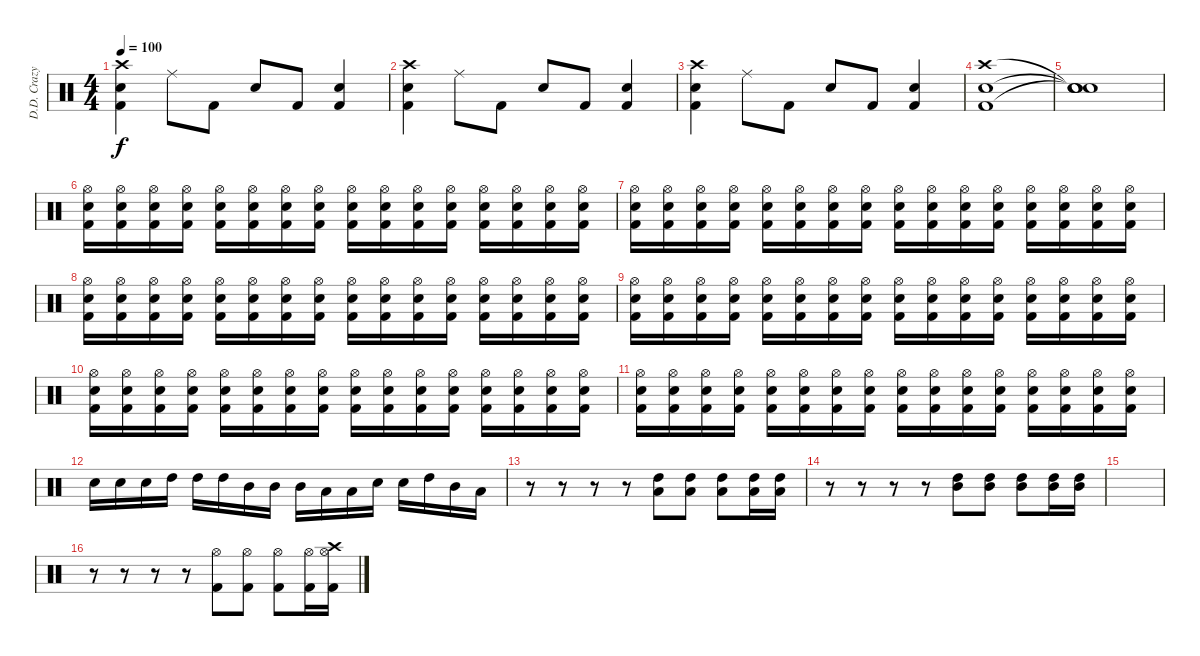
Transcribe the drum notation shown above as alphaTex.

\track ("D.D. Crazy " "D.D. Crazy") {instrument percussion}
\staff {score}
\articulation defaults
\ts (4 4)
\tempo 100
\clef neutral
\ks c
("Crash high (hit)" "Snare (hit) 2" "Kick (hit) 2").4{dy f} "Ride (middle)".8 "Kick (hit) 2".8 "Snare (hit) 2".8 "Kick (hit) 2".8 ("Snare (hit) 2" "Kick (hit) 2").4 |
("Crash high (hit)" "Snare (hit) 2" "Kick (hit) 2").4 "Ride (middle)".8 "Kick (hit) 2".8 "Snare (hit) 2".8 "Kick (hit) 2".8 ("Snare (hit) 2" "Kick (hit) 2").4 |
("Crash high (hit)" "Snare (hit) 2" "Kick (hit) 2").4 "Ride (middle)".8 "Kick (hit) 2".8 "Snare (hit) 2".8 "Kick (hit) 2".8 ("Snare (hit) 2" "Kick (hit) 2").4 |
("Crash high (hit)" "Snare (hit) 2" "Kick (hit) 2").1 |
("Snare (hit)"{t} "Snare (hit)"{t} "Snare (hit)"{t} "Snare (hit)").1 |
("Hi-Hat (open)" "Snare (hit) 2" "Kick (hit) 2").16 ("Hi-Hat (open)" "Snare (hit) 2" "Kick (hit) 2").16 ("Hi-Hat (open)" "Snare (hit) 2" "Kick (hit) 2").16 ("Hi-Hat (open)" "Snare (hit) 2" "Kick (hit) 2").16 ("Hi-Hat (open)" "Snare (hit) 2" "Kick (hit) 2").16 ("Hi-Hat (open)" "Snare (hit) 2" "Kick (hit) 2").16 ("Hi-Hat (open)" "Snare (hit) 2" "Kick (hit) 2").16 ("Hi-Hat (open)" "Snare (hit) 2" "Kick (hit) 2").16 ("Hi-Hat (open)" "Snare (hit) 2" "Kick (hit) 2").16 ("Hi-Hat (open)" "Snare (hit) 2" "Kick (hit) 2").16 ("Hi-Hat (open)" "Snare (hit) 2" "Kick (hit) 2").16 ("Hi-Hat (open)" "Snare (hit) 2" "Kick (hit) 2").16 ("Hi-Hat (open)" "Snare (hit) 2" "Kick (hit) 2").16 ("Hi-Hat (open)" "Snare (hit) 2" "Kick (hit) 2").16 ("Hi-Hat (open)" "Snare (hit) 2" "Kick (hit) 2").16 ("Hi-Hat (open)" "Snare (hit) 2" "Kick (hit) 2").16 |
("Hi-Hat (open)" "Snare (hit) 2" "Kick (hit) 2").16 ("Hi-Hat (open)" "Snare (hit) 2" "Kick (hit) 2").16 ("Hi-Hat (open)" "Snare (hit) 2" "Kick (hit) 2").16 ("Hi-Hat (open)" "Snare (hit) 2" "Kick (hit) 2").16 ("Hi-Hat (open)" "Snare (hit) 2" "Kick (hit) 2").16 ("Hi-Hat (open)" "Snare (hit) 2" "Kick (hit) 2").16 ("Hi-Hat (open)" "Snare (hit) 2" "Kick (hit) 2").16 ("Hi-Hat (open)" "Snare (hit) 2" "Kick (hit) 2").16 ("Hi-Hat (open)" "Snare (hit) 2" "Kick (hit) 2").16 ("Hi-Hat (open)" "Snare (hit) 2" "Kick (hit) 2").16 ("Hi-Hat (open)" "Snare (hit) 2" "Kick (hit) 2").16 ("Hi-Hat (open)" "Snare (hit) 2" "Kick (hit) 2").16 ("Hi-Hat (open)" "Snare (hit) 2" "Kick (hit) 2").16 ("Hi-Hat (open)" "Snare (hit) 2" "Kick (hit) 2").16 ("Hi-Hat (open)" "Snare (hit) 2" "Kick (hit) 2").16 ("Hi-Hat (open)" "Snare (hit) 2" "Kick (hit) 2").16 |
("Hi-Hat (open)" "Snare (hit) 2" "Kick (hit) 2").16 ("Hi-Hat (open)" "Snare (hit) 2" "Kick (hit) 2").16 ("Hi-Hat (open)" "Snare (hit) 2" "Kick (hit) 2").16 ("Hi-Hat (open)" "Snare (hit) 2" "Kick (hit) 2").16 ("Hi-Hat (open)" "Snare (hit) 2" "Kick (hit) 2").16 ("Hi-Hat (open)" "Snare (hit) 2" "Kick (hit) 2").16 ("Hi-Hat (open)" "Snare (hit) 2" "Kick (hit) 2").16 ("Hi-Hat (open)" "Snare (hit) 2" "Kick (hit) 2").16 ("Hi-Hat (open)" "Snare (hit) 2" "Kick (hit) 2").16 ("Hi-Hat (open)" "Snare (hit) 2" "Kick (hit) 2").16 ("Hi-Hat (open)" "Snare (hit) 2" "Kick (hit) 2").16 ("Hi-Hat (open)" "Snare (hit) 2" "Kick (hit) 2").16 ("Hi-Hat (open)" "Snare (hit) 2" "Kick (hit) 2").16 ("Hi-Hat (open)" "Snare (hit) 2" "Kick (hit) 2").16 ("Hi-Hat (open)" "Snare (hit) 2" "Kick (hit) 2").16 ("Hi-Hat (open)" "Snare (hit) 2" "Kick (hit) 2").16 |
("Hi-Hat (open)" "Snare (hit) 2" "Kick (hit) 2").16 ("Hi-Hat (open)" "Snare (hit) 2" "Kick (hit) 2").16 ("Hi-Hat (open)" "Snare (hit) 2" "Kick (hit) 2").16 ("Hi-Hat (open)" "Snare (hit) 2" "Kick (hit) 2").16 ("Hi-Hat (open)" "Snare (hit) 2" "Kick (hit) 2").16 ("Hi-Hat (open)" "Snare (hit) 2" "Kick (hit) 2").16 ("Hi-Hat (open)" "Snare (hit) 2" "Kick (hit) 2").16 ("Hi-Hat (open)" "Snare (hit) 2" "Kick (hit) 2").16 ("Hi-Hat (open)" "Snare (hit) 2" "Kick (hit) 2").16 ("Hi-Hat (open)" "Snare (hit) 2" "Kick (hit) 2").16 ("Hi-Hat (open)" "Snare (hit) 2" "Kick (hit) 2").16 ("Hi-Hat (open)" "Snare (hit) 2" "Kick (hit) 2").16 ("Hi-Hat (open)" "Snare (hit) 2" "Kick (hit) 2").16 ("Hi-Hat (open)" "Snare (hit) 2" "Kick (hit) 2").16 ("Hi-Hat (open)" "Snare (hit) 2" "Kick (hit) 2").16 ("Hi-Hat (open)" "Snare (hit) 2" "Kick (hit) 2").16 |
("Hi-Hat (open)" "Snare (hit) 2" "Kick (hit) 2").16 ("Hi-Hat (open)" "Snare (hit) 2" "Kick (hit) 2").16 ("Hi-Hat (open)" "Snare (hit) 2" "Kick (hit) 2").16 ("Hi-Hat (open)" "Snare (hit) 2" "Kick (hit) 2").16 ("Hi-Hat (open)" "Snare (hit) 2" "Kick (hit) 2").16 ("Hi-Hat (open)" "Snare (hit) 2" "Kick (hit) 2").16 ("Hi-Hat (open)" "Snare (hit) 2" "Kick (hit) 2").16 ("Hi-Hat (open)" "Snare (hit) 2" "Kick (hit) 2").16 ("Hi-Hat (open)" "Snare (hit) 2" "Kick (hit) 2").16 ("Hi-Hat (open)" "Snare (hit) 2" "Kick (hit) 2").16 ("Hi-Hat (open)" "Snare (hit) 2" "Kick (hit) 2").16 ("Hi-Hat (open)" "Snare (hit) 2" "Kick (hit) 2").16 ("Hi-Hat (open)" "Snare (hit) 2" "Kick (hit) 2").16 ("Hi-Hat (open)" "Snare (hit) 2" "Kick (hit) 2").16 ("Hi-Hat (open)" "Snare (hit) 2" "Kick (hit) 2").16 ("Hi-Hat (open)" "Snare (hit) 2" "Kick (hit) 2").16 |
("Hi-Hat (open)" "Snare (hit) 2" "Kick (hit) 2").16 ("Hi-Hat (open)" "Snare (hit) 2" "Kick (hit) 2").16 ("Hi-Hat (open)" "Snare (hit) 2" "Kick (hit) 2").16 ("Hi-Hat (open)" "Snare (hit) 2" "Kick (hit) 2").16 ("Hi-Hat (open)" "Snare (hit) 2" "Kick (hit) 2").16 ("Hi-Hat (open)" "Snare (hit) 2" "Kick (hit) 2").16 ("Hi-Hat (open)" "Snare (hit) 2" "Kick (hit) 2").16 ("Hi-Hat (open)" "Snare (hit) 2" "Kick (hit) 2").16 ("Hi-Hat (open)" "Snare (hit) 2" "Kick (hit) 2").16 ("Hi-Hat (open)" "Snare (hit) 2" "Kick (hit) 2").16 ("Hi-Hat (open)" "Snare (hit) 2" "Kick (hit) 2").16 ("Hi-Hat (open)" "Snare (hit) 2" "Kick (hit) 2").16 ("Hi-Hat (open)" "Snare (hit) 2" "Kick (hit) 2").16 ("Hi-Hat (open)" "Snare (hit) 2" "Kick (hit) 2").16 ("Hi-Hat (open)" "Snare (hit) 2" "Kick (hit) 2").16 ("Hi-Hat (open)" "Snare (hit) 2" "Kick (hit) 2").16 |
"Snare (hit) 2".16 "Snare (hit) 2".16 "Snare (hit) 2".16 "High Tom (hit)".16 "High Tom (hit)".16 "High Tom (hit)".16 "Mid Tom (hit)".16 "Mid Tom (hit)".16 "Mid Tom (hit)".16 "Low Tom (hit)".16 "Low Tom (hit)".16 "Snare (hit) 2".16 "Snare (hit) 2".16 "High Tom (hit)".16 "Mid Tom (hit)".16 "Low Tom (hit)".16 |
r.8 r.8 r.8 r.8 ("High Tom (hit)" "Low Tom (hit)").8 ("High Tom (hit)" "Low Tom (hit)").8 ("High Tom (hit)" "Low Tom (hit)").8 ("High Tom (hit)" "Low Tom (hit)").16 ("High Tom (hit)" "Low Tom (hit)").16 |
r.8 r.8 r.8 r.8 ("High Tom (hit)" "Mid Tom (hit)").8 ("High Tom (hit)" "Mid Tom (hit)").8 ("High Tom (hit)" "Mid Tom (hit)").8 ("High Tom (hit)" "Mid Tom (hit)").16 ("High Tom (hit)" "Mid Tom (hit)").16 |
|
r.8 r.8 r.8 r.8 ("Hi-Hat (open)" "Kick (hit) 2").8 ("Hi-Hat (open)" "Kick (hit) 2").8 ("Hi-Hat (open)" "Kick (hit) 2").8 ("Hi-Hat (open)" "Kick (hit) 2").16 ("Crash high (hit)" "Hi-Hat (open)" "Kick (hit) 2").16
